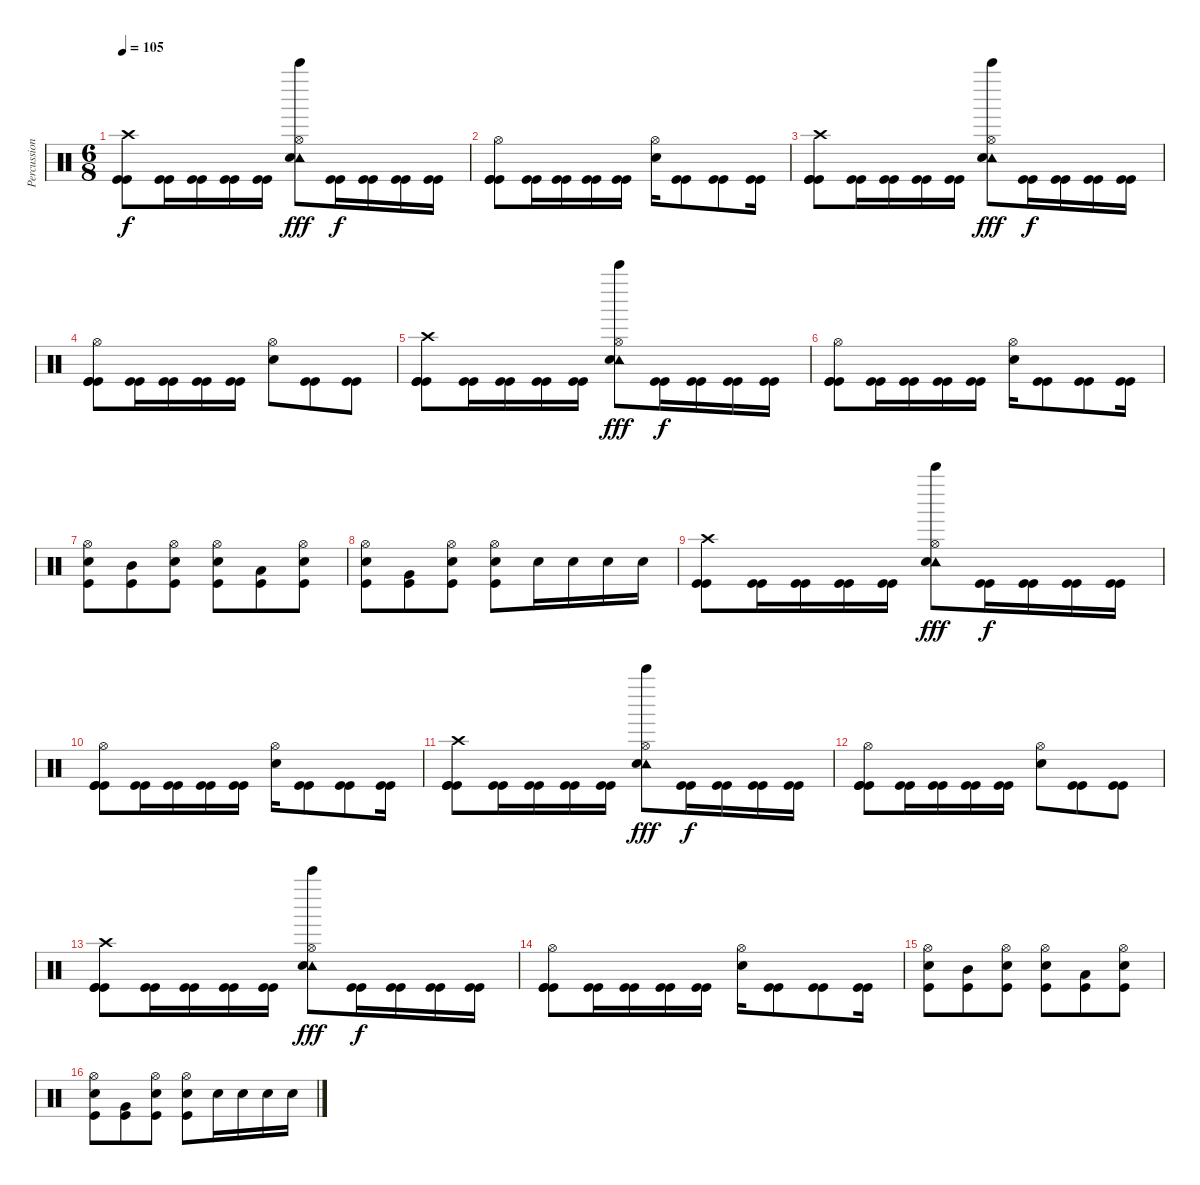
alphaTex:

\track ("Percussions" "Percussion") {instrument percussion}
\staff {score}
\articulation defaults
\ts (6 8)
\tempo 105
\clef neutral
\ks c
("Kick (hit)" "Kick (hit)" "Crash high (hit)").8{dy f} ("Kick (hit)" "Kick (hit)").16 ("Kick (hit)" "Kick (hit)").16 ("Kick (hit)" "Kick (hit)").16 ("Kick (hit)" "Kick (hit)").16 ("Tambourine (hit)" "Bell Tree (hit)" "Snare (hit) 2" "Hi-Hat (open)").8{dy fff} ("Kick (hit)" "Kick (hit)").16{dy f} ("Kick (hit)" "Kick (hit)").16 ("Kick (hit)" "Kick (hit)").16 ("Kick (hit)" "Kick (hit)").16 |
("Kick (hit)" "Kick (hit)" "Kick (hit)" "Hi-Hat (open)").8 ("Kick (hit)" "Kick (hit)").16 ("Kick (hit)" "Kick (hit)").16 ("Kick (hit)" "Kick (hit)").16 ("Kick (hit)" "Kick (hit)").16 ("Snare (hit) 2" "Hi-Hat (open)").16 ("Kick (hit)" "Kick (hit)").8 ("Kick (hit)" "Kick (hit)").8 ("Kick (hit)" "Kick (hit)").16 |
("Kick (hit)" "Kick (hit)" "Kick (hit)" "Crash high (hit)").8 ("Kick (hit)" "Kick (hit)").16 ("Kick (hit)" "Kick (hit)").16 ("Kick (hit)" "Kick (hit)").16 ("Kick (hit)" "Kick (hit)").16 ("Tambourine (hit)" "Bell Tree (hit)" "Snare (hit) 2" "Hi-Hat (open)").8{dy fff} ("Kick (hit)" "Kick (hit)").16{dy f} ("Kick (hit)" "Kick (hit)").16 ("Kick (hit)" "Kick (hit)").16 ("Kick (hit)" "Kick (hit)").16 |
("Kick (hit)" "Kick (hit)" "Kick (hit)" "Hi-Hat (open)").8 ("Kick (hit)" "Kick (hit)").16 ("Kick (hit)" "Kick (hit)").16 ("Kick (hit)" "Kick (hit)").16 ("Kick (hit)" "Kick (hit)").16 ("Snare (hit) 2" "Hi-Hat (open)").8 ("Kick (hit)" "Kick (hit)").8 ("Kick (hit)" "Kick (hit)").8 |
("Kick (hit)" "Kick (hit)" "Kick (hit)" "Crash high (hit)").8 ("Kick (hit)" "Kick (hit)").16 ("Kick (hit)" "Kick (hit)").16 ("Kick (hit)" "Kick (hit)").16 ("Kick (hit)" "Kick (hit)").16 ("Bell Tree (hit)" "Tambourine (hit)" "Snare (hit) 2" "Hi-Hat (open)").8{dy fff} ("Kick (hit)" "Kick (hit)").16{dy f} ("Kick (hit)" "Kick (hit)").16 ("Kick (hit)" "Kick (hit)").16 ("Kick (hit)" "Kick (hit)").16 |
("Kick (hit)" "Kick (hit)" "Kick (hit)" "Hi-Hat (open)").8 ("Kick (hit)" "Kick (hit)").16 ("Kick (hit)" "Kick (hit)").16 ("Kick (hit)" "Kick (hit)").16 ("Kick (hit)" "Kick (hit)").16 ("Snare (hit) 2" "Hi-Hat (open)").16 ("Kick (hit)" "Kick (hit)").8 ("Kick (hit)" "Kick (hit)").8 ("Kick (hit)" "Kick (hit)").16 |
("Kick (hit)" "Snare (hit) 2" "Hi-Hat (open)").8 ("Kick (hit)" "Mid Tom (hit)").8 ("Kick (hit)" "Snare (hit) 2" "Hi-Hat (open)").8 ("Kick (hit)" "Snare (hit) 2" "Hi-Hat (open)").8 ("Kick (hit)" "Low Tom (hit)").8 ("Kick (hit)" "Snare (hit) 2" "Hi-Hat (open)").8 |
("Kick (hit)" "Snare (hit) 2" "Hi-Hat (open)").8 ("Kick (hit)" "Very Low Tom (hit)").8 ("Kick (hit)" "Snare (hit) 2" "Hi-Hat (open)").8 ("Kick (hit)" "Snare (hit) 2" "Hi-Hat (open)").8 "Snare (hit) 2".16 "Snare (hit) 2".16 "Snare (hit) 2".16 "Snare (hit) 2".16 |
("Kick (hit)" "Kick (hit)" "Crash high (hit)").8 ("Kick (hit)" "Kick (hit)").16 ("Kick (hit)" "Kick (hit)").16 ("Kick (hit)" "Kick (hit)").16 ("Kick (hit)" "Kick (hit)").16 ("Bell Tree (hit)" "Tambourine (hit)" "Snare (hit) 2" "Hi-Hat (open)").8{dy fff} ("Kick (hit)" "Kick (hit)").16{dy f} ("Kick (hit)" "Kick (hit)").16 ("Kick (hit)" "Kick (hit)").16 ("Kick (hit)" "Kick (hit)").16 |
("Kick (hit)" "Kick (hit)" "Kick (hit)" "Hi-Hat (open)").8 ("Kick (hit)" "Kick (hit)").16 ("Kick (hit)" "Kick (hit)").16 ("Kick (hit)" "Kick (hit)").16 ("Kick (hit)" "Kick (hit)").16 ("Snare (hit) 2" "Hi-Hat (open)").16 ("Kick (hit)" "Kick (hit)").8 ("Kick (hit)" "Kick (hit)").8 ("Kick (hit)" "Kick (hit)").16 |
("Kick (hit)" "Kick (hit)" "Kick (hit)" "Crash high (hit)").8 ("Kick (hit)" "Kick (hit)").16 ("Kick (hit)" "Kick (hit)").16 ("Kick (hit)" "Kick (hit)").16 ("Kick (hit)" "Kick (hit)").16 ("Bell Tree (hit)" "Tambourine (hit)" "Snare (hit) 2" "Hi-Hat (open)").8{dy fff} ("Kick (hit)" "Kick (hit)").16{dy f} ("Kick (hit)" "Kick (hit)").16 ("Kick (hit)" "Kick (hit)").16 ("Kick (hit)" "Kick (hit)").16 |
("Kick (hit)" "Kick (hit)" "Kick (hit)" "Hi-Hat (open)").8 ("Kick (hit)" "Kick (hit)").16 ("Kick (hit)" "Kick (hit)").16 ("Kick (hit)" "Kick (hit)").16 ("Kick (hit)" "Kick (hit)").16 ("Snare (hit) 2" "Hi-Hat (open)").8 ("Kick (hit)" "Kick (hit)").8 ("Kick (hit)" "Kick (hit)").8 |
("Kick (hit)" "Kick (hit)" "Kick (hit)" "Crash high (hit)").8 ("Kick (hit)" "Kick (hit)").16 ("Kick (hit)" "Kick (hit)").16 ("Kick (hit)" "Kick (hit)").16 ("Kick (hit)" "Kick (hit)").16 ("Bell Tree (hit)" "Tambourine (hit)" "Snare (hit) 2" "Hi-Hat (open)").8{dy fff} ("Kick (hit)" "Kick (hit)").16{dy f} ("Kick (hit)" "Kick (hit)").16 ("Kick (hit)" "Kick (hit)").16 ("Kick (hit)" "Kick (hit)").16 |
("Kick (hit)" "Kick (hit)" "Kick (hit)" "Hi-Hat (open)").8 ("Kick (hit)" "Kick (hit)").16 ("Kick (hit)" "Kick (hit)").16 ("Kick (hit)" "Kick (hit)").16 ("Kick (hit)" "Kick (hit)").16 ("Snare (hit) 2" "Hi-Hat (open)").16 ("Kick (hit)" "Kick (hit)").8 ("Kick (hit)" "Kick (hit)").8 ("Kick (hit)" "Kick (hit)").16 |
("Kick (hit)" "Snare (hit) 2" "Hi-Hat (open)").8 ("Kick (hit)" "Mid Tom (hit)").8 ("Kick (hit)" "Snare (hit) 2" "Hi-Hat (open)").8 ("Kick (hit)" "Snare (hit) 2" "Hi-Hat (open)").8 ("Kick (hit)" "Low Tom (hit)").8 ("Kick (hit)" "Snare (hit) 2" "Hi-Hat (open)").8 |
("Kick (hit)" "Snare (hit) 2" "Hi-Hat (open)").8 ("Kick (hit)" "Very Low Tom (hit)").8 ("Kick (hit)" "Snare (hit) 2" "Hi-Hat (open)").8 ("Kick (hit)" "Snare (hit) 2" "Hi-Hat (open)").8 "Snare (hit) 2".16 "Snare (hit) 2".16 "Snare (hit) 2".16 "Snare (hit) 2".16
